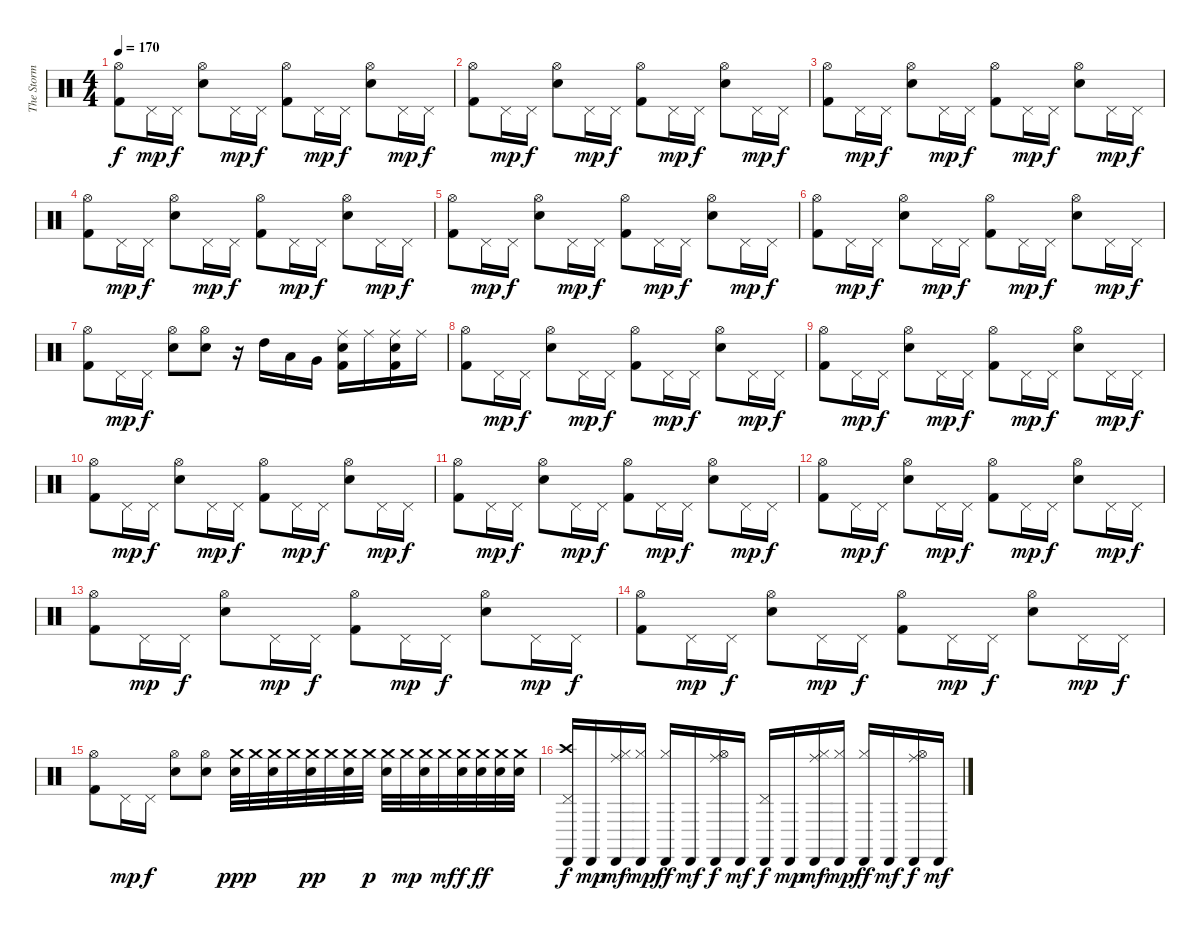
\track ("The Storm" "The Storm") {instrument percussion}
\staff {score}
\articulation defaults
\ts (4 4)
\tempo 170
\clef neutral
\ks c
("Kick (hit) 2" "Hi-Hat (open)").8{dy f} "Pedal Hi-Hat (hit)".16{dy mp} "Pedal Hi-Hat (hit)".16{dy f} ("Hi-Hat (open)" "Electric Snare (hit)").8 "Pedal Hi-Hat (hit)".16{dy mp} "Pedal Hi-Hat (hit)".16{dy f} ("Kick (hit) 2" "Hi-Hat (open)").8 "Pedal Hi-Hat (hit)".16{dy mp} "Pedal Hi-Hat (hit)".16{dy f} ("Hi-Hat (open)" "Electric Snare (hit)").8 "Pedal Hi-Hat (hit)".16{dy mp} "Pedal Hi-Hat (hit)".16{dy f} |
("Hi-Hat (open)" "Kick (hit) 2").8 "Pedal Hi-Hat (hit)".16{dy mp} "Pedal Hi-Hat (hit)".16{dy f} ("Hi-Hat (open)" "Electric Snare (hit)").8 "Pedal Hi-Hat (hit)".16{dy mp} "Pedal Hi-Hat (hit)".16{dy f} ("Hi-Hat (open)" "Kick (hit) 2").8 "Pedal Hi-Hat (hit)".16{dy mp} "Pedal Hi-Hat (hit)".16{dy f} ("Hi-Hat (open)" "Electric Snare (hit)").8 "Pedal Hi-Hat (hit)".16{dy mp} "Pedal Hi-Hat (hit)".16{dy f} |
("Kick (hit) 2" "Hi-Hat (open)").8 "Pedal Hi-Hat (hit)".16{dy mp} "Pedal Hi-Hat (hit)".16{dy f} ("Hi-Hat (open)" "Electric Snare (hit)").8 "Pedal Hi-Hat (hit)".16{dy mp} "Pedal Hi-Hat (hit)".16{dy f} ("Hi-Hat (open)" "Kick (hit) 2").8 "Pedal Hi-Hat (hit)".16{dy mp} "Pedal Hi-Hat (hit)".16{dy f} ("Hi-Hat (open)" "Electric Snare (hit)").8 "Pedal Hi-Hat (hit)".16{dy mp} "Pedal Hi-Hat (hit)".16{dy f} |
("Kick (hit) 2" "Hi-Hat (open)").8 "Pedal Hi-Hat (hit)".16{dy mp} "Pedal Hi-Hat (hit)".16{dy f} ("Electric Snare (hit)" "Hi-Hat (open)").8 "Pedal Hi-Hat (hit)".16{dy mp} "Pedal Hi-Hat (hit)".16{dy f} ("Kick (hit) 2" "Hi-Hat (open)").8 "Pedal Hi-Hat (hit)".16{dy mp} "Pedal Hi-Hat (hit)".16{dy f} ("Hi-Hat (open)" "Electric Snare (hit)").8 "Pedal Hi-Hat (hit)".16{dy mp} "Pedal Hi-Hat (hit)".16{dy f} |
("Kick (hit) 2" "Hi-Hat (open)").8 "Pedal Hi-Hat (hit)".16{dy mp} "Pedal Hi-Hat (hit)".16{dy f} ("Hi-Hat (open)" "Electric Snare (hit)").8 "Pedal Hi-Hat (hit)".16{dy mp} "Pedal Hi-Hat (hit)".16{dy f} ("Hi-Hat (open)" "Kick (hit) 2").8 "Pedal Hi-Hat (hit)".16{dy mp} "Pedal Hi-Hat (hit)".16{dy f} ("Electric Snare (hit)" "Hi-Hat (open)").8 "Pedal Hi-Hat (hit)".16{dy mp} "Pedal Hi-Hat (hit)".16{dy f} |
("Kick (hit) 2" "Hi-Hat (open)").8 "Pedal Hi-Hat (hit)".16{dy mp} "Pedal Hi-Hat (hit)".16{dy f} ("Electric Snare (hit)" "Hi-Hat (open)").8 "Pedal Hi-Hat (hit)".16{dy mp} "Pedal Hi-Hat (hit)".16{dy f} ("Hi-Hat (open)" "Kick (hit) 2").8 "Pedal Hi-Hat (hit)".16{dy mp} "Pedal Hi-Hat (hit)".16{dy f} ("Electric Snare (hit)" "Hi-Hat (open)").8 "Pedal Hi-Hat (hit)".16{dy mp} "Pedal Hi-Hat (hit)".16{dy f} |
("Kick (hit) 2" "Hi-Hat (open)").8 "Pedal Hi-Hat (hit)".16{dy mp} "Pedal Hi-Hat (hit)".16{dy f} ("Electric Snare (hit)" "Hi-Hat (open)").8 ("Electric Snare (hit)" "Hi-Hat (open)").8 r.16 "High Tom (hit)".16 "Low Tom (hit)".16 "Very Low Tom (hit)".16 ("Kick (hit) 2" "Electric Snare (hit)" "Ride (middle)").16 "Ride (middle)".16 ("Kick (hit) 2" "Ride (middle)" "Electric Snare (hit)").16 "Ride (middle)".16 |
("Hi-Hat (open)" "Kick (hit) 2").8 "Pedal Hi-Hat (hit)".16{dy mp} "Pedal Hi-Hat (hit)".16{dy f} ("Electric Snare (hit)" "Hi-Hat (open)").8 "Pedal Hi-Hat (hit)".16{dy mp} "Pedal Hi-Hat (hit)".16{dy f} ("Hi-Hat (open)" "Kick (hit) 2").8 "Pedal Hi-Hat (hit)".16{dy mp} "Pedal Hi-Hat (hit)".16{dy f} ("Electric Snare (hit)" "Hi-Hat (open)").8 "Pedal Hi-Hat (hit)".16{dy mp} "Pedal Hi-Hat (hit)".16{dy f} |
("Kick (hit) 2" "Hi-Hat (open)").8 "Pedal Hi-Hat (hit)".16{dy mp} "Pedal Hi-Hat (hit)".16{dy f} ("Hi-Hat (open)" "Electric Snare (hit)").8 "Pedal Hi-Hat (hit)".16{dy mp} "Pedal Hi-Hat (hit)".16{dy f} ("Kick (hit) 2" "Hi-Hat (open)").8 "Pedal Hi-Hat (hit)".16{dy mp} "Pedal Hi-Hat (hit)".16{dy f} ("Hi-Hat (open)" "Electric Snare (hit)").8 "Pedal Hi-Hat (hit)".16{dy mp} "Pedal Hi-Hat (hit)".16{dy f} |
("Hi-Hat (open)" "Kick (hit) 2").8 "Pedal Hi-Hat (hit)".16{dy mp} "Pedal Hi-Hat (hit)".16{dy f} ("Hi-Hat (open)" "Electric Snare (hit)").8 "Pedal Hi-Hat (hit)".16{dy mp} "Pedal Hi-Hat (hit)".16{dy f} ("Hi-Hat (open)" "Kick (hit) 2").8 "Pedal Hi-Hat (hit)".16{dy mp} "Pedal Hi-Hat (hit)".16{dy f} ("Hi-Hat (open)" "Electric Snare (hit)").8 "Pedal Hi-Hat (hit)".16{dy mp} "Pedal Hi-Hat (hit)".16{dy f} |
("Kick (hit) 2" "Hi-Hat (open)").8 "Pedal Hi-Hat (hit)".16{dy mp} "Pedal Hi-Hat (hit)".16{dy f} ("Hi-Hat (open)" "Electric Snare (hit)").8 "Pedal Hi-Hat (hit)".16{dy mp} "Pedal Hi-Hat (hit)".16{dy f} ("Hi-Hat (open)" "Kick (hit) 2").8 "Pedal Hi-Hat (hit)".16{dy mp} "Pedal Hi-Hat (hit)".16{dy f} ("Hi-Hat (open)" "Electric Snare (hit)").8 "Pedal Hi-Hat (hit)".16{dy mp} "Pedal Hi-Hat (hit)".16{dy f} |
("Kick (hit) 2" "Hi-Hat (open)").8 "Pedal Hi-Hat (hit)".16{dy mp} "Pedal Hi-Hat (hit)".16{dy f} ("Electric Snare (hit)" "Hi-Hat (open)").8 "Pedal Hi-Hat (hit)".16{dy mp} "Pedal Hi-Hat (hit)".16{dy f} ("Kick (hit) 2" "Hi-Hat (open)").8 "Pedal Hi-Hat (hit)".16{dy mp} "Pedal Hi-Hat (hit)".16{dy f} ("Hi-Hat (open)" "Electric Snare (hit)").8 "Pedal Hi-Hat (hit)".16{dy mp} "Pedal Hi-Hat (hit)".16{dy f} |
("Kick (hit) 2" "Hi-Hat (open)").8 "Pedal Hi-Hat (hit)".16{dy mp} "Pedal Hi-Hat (hit)".16{dy f} ("Electric Snare (hit)" "Hi-Hat (open)").8 "Pedal Hi-Hat (hit)".16{dy mp} "Pedal Hi-Hat (hit)".16{dy f} ("Hi-Hat (open)" "Kick (hit) 2").8 "Pedal Hi-Hat (hit)".16{dy mp} "Pedal Hi-Hat (hit)".16{dy f} ("Electric Snare (hit)" "Hi-Hat (open)").8 "Pedal Hi-Hat (hit)".16{dy mp} "Pedal Hi-Hat (hit)".16{dy f} |
("Kick (hit) 2" "Hi-Hat (open)").8 "Pedal Hi-Hat (hit)".16{dy mp} "Pedal Hi-Hat (hit)".16{dy f} ("Hi-Hat (open)" "Electric Snare (hit)").8 "Pedal Hi-Hat (hit)".16{dy mp} "Pedal Hi-Hat (hit)".16{dy f} ("Hi-Hat (open)" "Kick (hit) 2").8 "Pedal Hi-Hat (hit)".16{dy mp} "Pedal Hi-Hat (hit)".16{dy f} ("Electric Snare (hit)" "Hi-Hat (open)").8 "Pedal Hi-Hat (hit)".16{dy mp} "Pedal Hi-Hat (hit)".16{dy f} |
("Kick (hit) 2" "Hi-Hat (open)").8 "Pedal Hi-Hat (hit)".16{dy mp} "Pedal Hi-Hat (hit)".16{dy f} ("Electric Snare (hit)" "Hi-Hat (open)").8 ("Electric Snare (hit)" "Hi-Hat (open)").8 ("Electric Snare (hit)" "Crash medium (hit)").32{dy ppp} "Crash medium (hit)".32 ("Electric Snare (hit)" "Crash medium (hit)").32 "Crash medium (hit)".32 ("Electric Snare (hit)" "Crash medium (hit)").32{dy pp} "Crash medium (hit)".32 ("Electric Snare (hit)" "Crash medium (hit)").32 "Crash medium (hit)".32{dy p} ("Electric Snare (hit)" "Crash medium (hit)").32 "Crash medium (hit)".32{dy mp} ("Electric Snare (hit)" "Crash medium (hit)").32 "Crash medium (hit)".32{dy mf} ("Electric Snare (hit)" "Crash medium (hit)").32{dy f} ("Electric Snare (hit)" "Crash medium (hit)").32{dy ff} ("Electric Snare (hit)" "Crash medium (hit)").32 ("Electric Snare (hit)" "Crash medium (hit)").32 |
("Cabasa (hit)" "Pedal Hi-Hat (hit)" "Crash high (hit)").16{dy f} "Cabasa (hit)".16{dy mp} ("Hi-Hat (closed)" "Ride (middle)" "Cabasa (hit)").16{dy mf} ("Hi-Hat (closed)" "Cabasa (hit)").16{dy mp} ("Cabasa (hit)" "Hi-Hat (closed)").16{dy ff} "Cabasa (hit)".16{dy mf} ("Cabasa (hit)" "Hi-Hat (open)" "Ride (middle)").16{dy f} "Cabasa (hit)".16{dy mf} ("Cabasa (hit)" "Pedal Hi-Hat (hit)").16{dy f} "Cabasa (hit)".16{dy mp} ("Cabasa (hit)" "Hi-Hat (closed)" "Ride (middle)").16{dy mf} ("Cabasa (hit)" "Hi-Hat (closed)").16{dy mp} ("Cabasa (hit)" "Hi-Hat (closed)").16{dy ff} "Cabasa (hit)".16{dy mf} ("Ride (middle)" "Hi-Hat (open)" "Cabasa (hit)").16{dy f} "Cabasa (hit)".16{dy mf}
